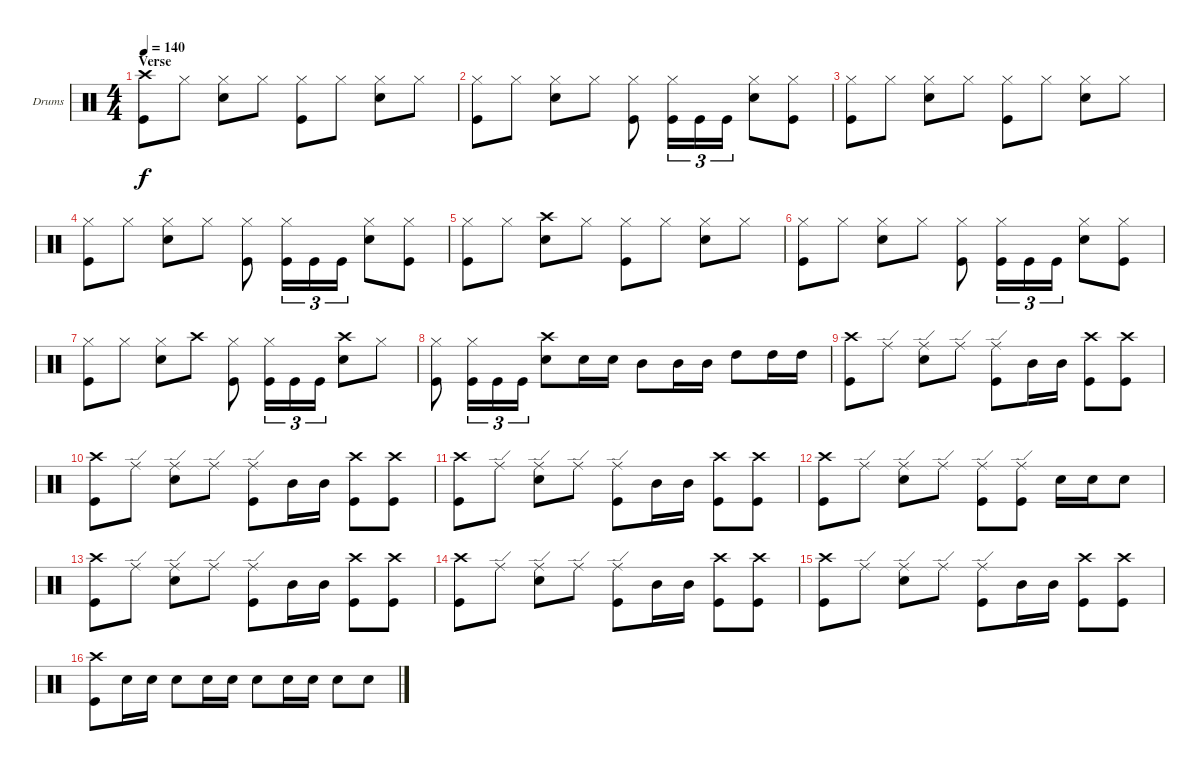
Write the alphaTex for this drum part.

\defaultSystemsLayout 4
\bracketExtendMode groupsimilarinstruments
\firstSystemTrackNameOrientation horizontal
\otherSystemsTrackNameOrientation horizontal
\track ("Drums" "Drums") {instrument percussion}
\staff {score}
\articulation defaults
\ts (4 4)
\section ("" "Verse")
\tempo 140
\clef neutral
\ks c
("Kick (hit)" "Crash high (hit)").8{dy f} "Hi-Hat (closed)".8 ("Snare (hit) 2" "Hi-Hat (closed)").8 "Hi-Hat (closed)".8 ("Kick (hit)" "Hi-Hat (closed)").8 "Hi-Hat (closed)".8 ("Snare (hit) 2" "Hi-Hat (closed)").8 "Hi-Hat (closed)".8 |
("Kick (hit)" "Hi-Hat (closed)").8 "Hi-Hat (closed)".8 ("Hi-Hat (closed)" "Snare (hit) 2").8 "Hi-Hat (closed)".8 ("Kick (hit)" "Hi-Hat (closed)").8 ("Kick (hit)" "Hi-Hat (closed)").16{tu (3 2)} "Kick (hit)".16{tu (3 2)} "Kick (hit)".16{tu (3 2)} ("Snare (hit) 2" "Hi-Hat (closed)").8 ("Kick (hit)" "Hi-Hat (closed)").8 |
("Hi-Hat (closed)" "Kick (hit)").8 "Hi-Hat (closed)".8 ("Hi-Hat (closed)" "Snare (hit) 2").8 "Hi-Hat (closed)".8 ("Hi-Hat (closed)" "Kick (hit)").8 "Hi-Hat (closed)".8 ("Snare (hit) 2" "Hi-Hat (closed)").8 "Hi-Hat (closed)".8 |
("Kick (hit)" "Hi-Hat (closed)").8 "Hi-Hat (closed)".8 ("Hi-Hat (closed)" "Snare (hit) 2").8 "Hi-Hat (closed)".8 ("Kick (hit)" "Hi-Hat (closed)").8 ("Kick (hit)" "Hi-Hat (closed)").16{tu (3 2)} "Kick (hit)".16{tu (3 2)} "Kick (hit)".16{tu (3 2)} ("Snare (hit) 2" "Hi-Hat (closed)").8 ("Kick (hit)" "Hi-Hat (closed)").8 |
("Hi-Hat (closed)" "Kick (hit)").8 "Hi-Hat (closed)".8 ("Crash high (hit)" "Snare (hit) 2").8 "Hi-Hat (closed)".8 ("Hi-Hat (closed)" "Kick (hit)").8 "Hi-Hat (closed)".8 ("Snare (hit) 2" "Hi-Hat (closed)").8 "Hi-Hat (closed)".8 |
("Kick (hit)" "Hi-Hat (closed)").8 "Hi-Hat (closed)".8 ("Hi-Hat (closed)" "Snare (hit) 2").8 "Hi-Hat (closed)".8 ("Kick (hit)" "Hi-Hat (closed)").8 ("Kick (hit)" "Hi-Hat (closed)").16{tu (3 2)} "Kick (hit)".16{tu (3 2)} "Kick (hit)".16{tu (3 2)} ("Snare (hit) 2" "Hi-Hat (closed)").8 ("Kick (hit)" "Hi-Hat (closed)").8 |
("Kick (hit)" "Hi-Hat (closed)").8 "Hi-Hat (closed)".8 ("Hi-Hat (closed)" "Snare (hit) 2").8 "Crash high (hit)".8 ("Kick (hit)" "Hi-Hat (closed)").8 ("Kick (hit)" "Hi-Hat (closed)").16{tu (3 2)} "Kick (hit)".16{tu (3 2)} "Kick (hit)".16{tu (3 2)} ("Crash high (hit)" "Snare (hit) 2").8 "Hi-Hat (closed)".8 |
("Hi-Hat (closed)" "Kick (hit)").8 ("Hi-Hat (closed)" "Kick (hit)").16{tu (3 2)} "Kick (hit)".16{tu (3 2)} "Kick (hit)".16{tu (3 2)} ("Snare (hit) 2" "Crash high (hit)").8 "Snare (hit) 2".16 "Snare (hit) 2".16 "Mid Tom (hit)".8 "Mid Tom (hit)".16 "Mid Tom (hit)".16 "High Tom (hit)".8 "High Tom (hit)".16 "High Tom (hit)".16 |
("Crash high (hit)" "Kick (hit)").8 "Ride (edge)".8 ("Snare (hit) 2" "Ride (edge)").8 "Ride (edge)".8 ("Ride (edge)" "Kick (hit)").8 "Mid Tom (hit)".16 "Mid Tom (hit)".16 ("Crash high (hit)" "Kick (hit)").8 ("Crash high (hit)" "Kick (hit)").8 |
("Crash high (hit)" "Kick (hit)").8 "Ride (edge)".8 ("Snare (hit) 2" "Ride (edge)").8 "Ride (edge)".8 ("Ride (edge)" "Kick (hit)").8 "Mid Tom (hit)".16 "Mid Tom (hit)".16 ("Crash high (hit)" "Kick (hit)").8 ("Crash high (hit)" "Kick (hit)").8 |
("Crash high (hit)" "Kick (hit)").8 "Ride (edge)".8 ("Snare (hit) 2" "Ride (edge)").8 "Ride (edge)".8 ("Ride (edge)" "Kick (hit)").8 "Mid Tom (hit)".16 "Mid Tom (hit)".16 ("Crash high (hit)" "Kick (hit)").8 ("Crash high (hit)" "Kick (hit)").8 |
("Crash high (hit)" "Kick (hit)").8 "Ride (edge)".8 ("Snare (hit) 2" "Ride (edge)").8 "Ride (edge)".8 ("Kick (hit)" "Ride (edge)").8 ("Ride (edge)" "Kick (hit)").8 "Snare (hit) 2".16 "Snare (hit) 2".16 "Snare (hit) 2".8 |
("Crash high (hit)" "Kick (hit)").8 "Ride (edge)".8 ("Snare (hit) 2" "Ride (edge)").8 "Ride (edge)".8 ("Ride (edge)" "Kick (hit)").8 "Mid Tom (hit)".16 "Mid Tom (hit)".16 ("Crash high (hit)" "Kick (hit)").8 ("Crash high (hit)" "Kick (hit)").8 |
("Crash high (hit)" "Kick (hit)").8 "Ride (edge)".8 ("Snare (hit) 2" "Ride (edge)").8 "Ride (edge)".8 ("Ride (edge)" "Kick (hit)").8 "Mid Tom (hit)".16 "Mid Tom (hit)".16 ("Crash high (hit)" "Kick (hit)").8 ("Crash high (hit)" "Kick (hit)").8 |
("Crash high (hit)" "Kick (hit)").8 "Ride (edge)".8 ("Snare (hit) 2" "Ride (edge)").8 "Ride (edge)".8 ("Ride (edge)" "Kick (hit)").8 "Mid Tom (hit)".16 "Mid Tom (hit)".16 ("Crash high (hit)" "Kick (hit)").8 ("Crash high (hit)" "Kick (hit)").8 |
("Kick (hit)" "Crash high (hit)").8 "Snare (hit) 2".16 "Snare (hit) 2".16 "Snare (hit) 2".8 "Snare (hit) 2".16 "Snare (hit) 2".16 "Snare (hit) 2".8 "Snare (hit) 2".16 "Snare (hit) 2".16 "Snare (hit) 2".8 "Snare (hit) 2".8
